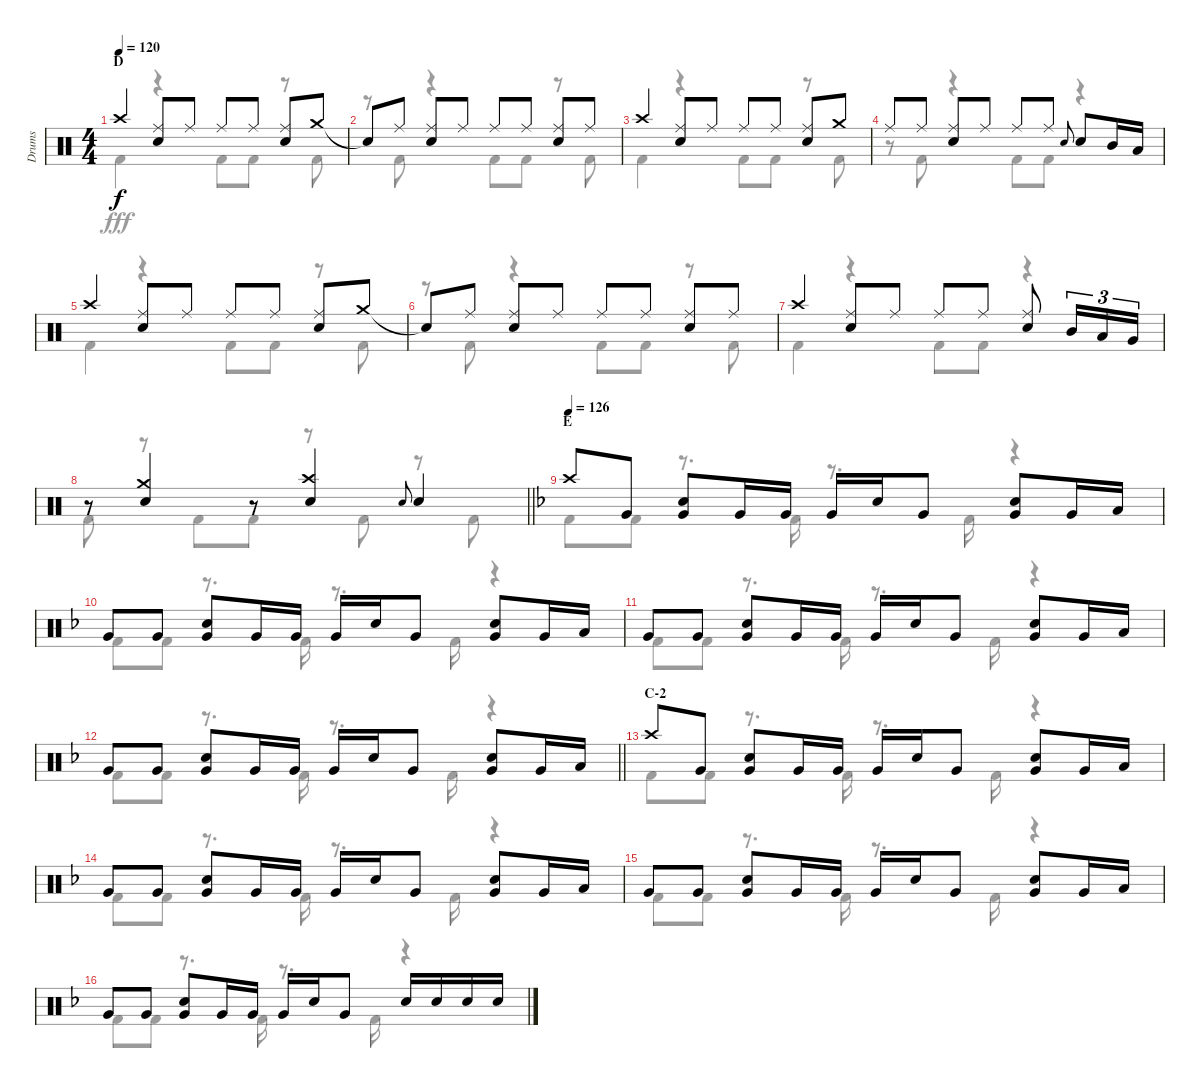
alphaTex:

\track ("Drums" "Drums") {instrument percussion}
\staff {score}
\articulation defaults
\voice
\ts (4 4)
\section ("" "D")
\tempo 120
\clef neutral
\ks c "Crash high (hit)".4{dy f}
("Ride (middle)" "Snare (hit) 2").8 "Ride (middle)".8 "Ride (middle)".8 "Ride (middle)".8 ("Ride (middle)" "Snare (hit) 2").8 "Crash medium (hit)".8 |
"Snare (hit)"{t}.8 "Ride (middle)".8 ("Ride (middle)" "Snare (hit) 2").8 "Ride (middle)".8 "Ride (middle)".8 "Ride (middle)".8 ("Ride (middle)" "Snare (hit) 2").8 "Ride (middle)".8 |
"Crash high (hit)".4 ("Ride (middle)" "Snare (hit) 2").8 "Ride (middle)".8 "Ride (middle)".8 "Ride (middle)".8 ("Ride (middle)" "Snare (hit) 2").8 "Crash medium (hit)".8 |
"Ride (middle)".8 "Ride (middle)".8 ("Ride (middle)" "Snare (hit) 2").8 "Ride (middle)".8 "Ride (middle)".8 "Ride (middle)".8 "Snare (hit) 2".8{gr onbeat} "Snare (hit) 2".8 "Mid Tom (hit)".16 "Low Tom (hit)".16 |
"Crash high (hit)".4 ("Ride (middle)" "Snare (hit) 2").8 "Ride (middle)".8 "Ride (middle)".8 "Ride (middle)".8 ("Ride (middle)" "Snare (hit) 2").8 "Crash medium (hit)".8 |
"Snare (hit)"{t}.8 "Ride (middle)".8 ("Ride (middle)" "Snare (hit) 2").8 "Ride (middle)".8 "Ride (middle)".8 "Ride (middle)".8 ("Ride (middle)" "Snare (hit) 2").8 "Ride (middle)".8 |
"Crash high (hit)".4 ("Ride (middle)" "Snare (hit) 2").8 "Ride (middle)".8 "Ride (middle)".8 "Ride (middle)".8 ("Ride (middle)" "Snare (hit) 2").8 "Mid Tom (hit)".16{tu (3 2)} "Low Tom (hit)".16{tu (3 2)} "Very Low Tom (hit)".16{tu (3 2)} |
\barLineRight lightlight
r.8 ("Crash medium (hit)" "Snare (hit) 2").4 r.8 ("Crash high (hit)" "Snare (hit) 2").4 "Snare (hit) 2".8{gr onbeat} "Snare (hit) 2".4 |
\section ("" "E")
\tempo 126
\ks f "Crash high (hit)".8 "Very Low Tom (hit)".8
("Snare (hit) 2" "Very Low Tom (hit)").8 "Very Low Tom (hit)".16 "Very Low Tom (hit)".16 "Very Low Tom (hit)".16 "Snare (hit) 2".16 "Very Low Tom (hit)".8 ("Snare (hit) 2" "Very Low Tom (hit)").8 "Very Low Tom (hit)".16 "Low Tom (hit)".16 |
"Very Low Tom (hit)".8 "Very Low Tom (hit)".8 ("Snare (hit) 2" "Very Low Tom (hit)").8 "Very Low Tom (hit)".16 "Very Low Tom (hit)".16 "Very Low Tom (hit)".16 "Snare (hit) 2".16 "Very Low Tom (hit)".8 ("Snare (hit) 2" "Very Low Tom (hit)").8 "Very Low Tom (hit)".16 "Low Tom (hit)".16 |
"Very Low Tom (hit)".8 "Very Low Tom (hit)".8 ("Snare (hit) 2" "Very Low Tom (hit)").8 "Very Low Tom (hit)".16 "Very Low Tom (hit)".16 "Very Low Tom (hit)".16 "Snare (hit) 2".16 "Very Low Tom (hit)".8 ("Snare (hit) 2" "Very Low Tom (hit)").8 "Very Low Tom (hit)".16 "Low Tom (hit)".16 |
\barLineRight lightlight "Very Low Tom (hit)".8 "Very Low Tom (hit)".8
("Snare (hit) 2" "Very Low Tom (hit)").8 "Very Low Tom (hit)".16 "Very Low Tom (hit)".16 "Very Low Tom (hit)".16 "Snare (hit) 2".16 "Very Low Tom (hit)".8 ("Snare (hit) 2" "Very Low Tom (hit)").8 "Very Low Tom (hit)".16 "Low Tom (hit)".16 |
\section ("" "C-2")
"Crash high (hit)".8 "Very Low Tom (hit)".8 ("Snare (hit) 2" "Very Low Tom (hit)").8 "Very Low Tom (hit)".16 "Very Low Tom (hit)".16 "Very Low Tom (hit)".16 "Snare (hit) 2".16 "Very Low Tom (hit)".8 ("Snare (hit) 2" "Very Low Tom (hit)").8 "Very Low Tom (hit)".16 "Low Tom (hit)".16 |
"Very Low Tom (hit)".8 "Very Low Tom (hit)".8 ("Snare (hit) 2" "Very Low Tom (hit)").8 "Very Low Tom (hit)".16 "Very Low Tom (hit)".16 "Very Low Tom (hit)".16 "Snare (hit) 2".16 "Very Low Tom (hit)".8 ("Snare (hit) 2" "Very Low Tom (hit)").8 "Very Low Tom (hit)".16 "Low Tom (hit)".16 |
"Very Low Tom (hit)".8 "Very Low Tom (hit)".8 ("Snare (hit) 2" "Very Low Tom (hit)").8 "Very Low Tom (hit)".16 "Very Low Tom (hit)".16 "Very Low Tom (hit)".16 "Snare (hit) 2".16 "Very Low Tom (hit)".8 ("Snare (hit) 2" "Very Low Tom (hit)").8 "Very Low Tom (hit)".16 "Low Tom (hit)".16 |
"Very Low Tom (hit)".8 "Very Low Tom (hit)".8 ("Snare (hit) 2" "Very Low Tom (hit)").8 "Very Low Tom (hit)".16 "Very Low Tom (hit)".16 "Very Low Tom (hit)".16 "Snare (hit) 2".16 "Very Low Tom (hit)".8 "Snare (hit) 2".16 "Snare (hit) 2".16 "Snare (hit) 2".16 "Snare (hit) 2".16
\voice
\clef neutral
\ottava regular
\simile none
\ks c "Kick (hit) 2".4{dy fff}
r.4 "Kick (hit) 2".8 "Kick (hit) 2".8 r.8 "Kick (hit) 2".8 |
r.8 "Kick (hit) 2".8 r.4 "Kick (hit) 2".8 "Kick (hit) 2".8 r.8 "Kick (hit) 2".8 |
"Kick (hit) 2".4 r.4 "Kick (hit) 2".8 "Kick (hit) 2".8 r.8 "Kick (hit) 2".8 |
r.8 "Kick (hit) 2".8 r.4 "Kick (hit) 2".8 "Kick (hit) 2".8 r.4 |
"Kick (hit) 2".4 r.4 "Kick (hit) 2".8 "Kick (hit) 2".8 r.8 "Kick (hit) 2".8 |
r.8 "Kick (hit) 2".8 r.4 "Kick (hit) 2".8 "Kick (hit) 2".8 r.8 "Kick (hit) 2".8 |
"Kick (hit) 2".4 r.4 "Kick (hit) 2".8 "Kick (hit) 2".8 r.4 |
\barLineRight lightlight "Kick (hit) 2".8
r.8 "Kick (hit) 2".8 "Kick (hit) 2".8 r.8 "Kick (hit) 2".8 r.8 "Kick (hit) 2".8 |
\ks f "Kick (hit) 2".8 "Kick (hit) 2".8
r.8{d} "Kick (hit) 2".16 r.8{d} "Kick (hit) 2".16 r.4 |
"Kick (hit) 2".8 "Kick (hit) 2".8 r.8{d} "Kick (hit) 2".16 r.8{d} "Kick (hit) 2".16 r.4 |
"Kick (hit) 2".8 "Kick (hit) 2".8 r.8{d} "Kick (hit) 2".16 r.8{d} "Kick (hit) 2".16 r.4 |
\barLineRight lightlight "Kick (hit) 2".8 "Kick (hit) 2".8
r.8{d} "Kick (hit) 2".16 r.8{d} "Kick (hit) 2".16 r.4 |
"Kick (hit) 2".8 "Kick (hit) 2".8 r.8{d} "Kick (hit) 2".16 r.8{d} "Kick (hit) 2".16 r.4 |
"Kick (hit) 2".8 "Kick (hit) 2".8 r.8{d} "Kick (hit) 2".16 r.8{d} "Kick (hit) 2".16 r.4 |
"Kick (hit) 2".8 "Kick (hit) 2".8 r.8{d} "Kick (hit) 2".16 r.8{d} "Kick (hit) 2".16 r.4 |
"Kick (hit) 2".8 "Kick (hit) 2".8 r.8{d} "Kick (hit) 2".16 r.8{d} "Kick (hit) 2".16 r.4
